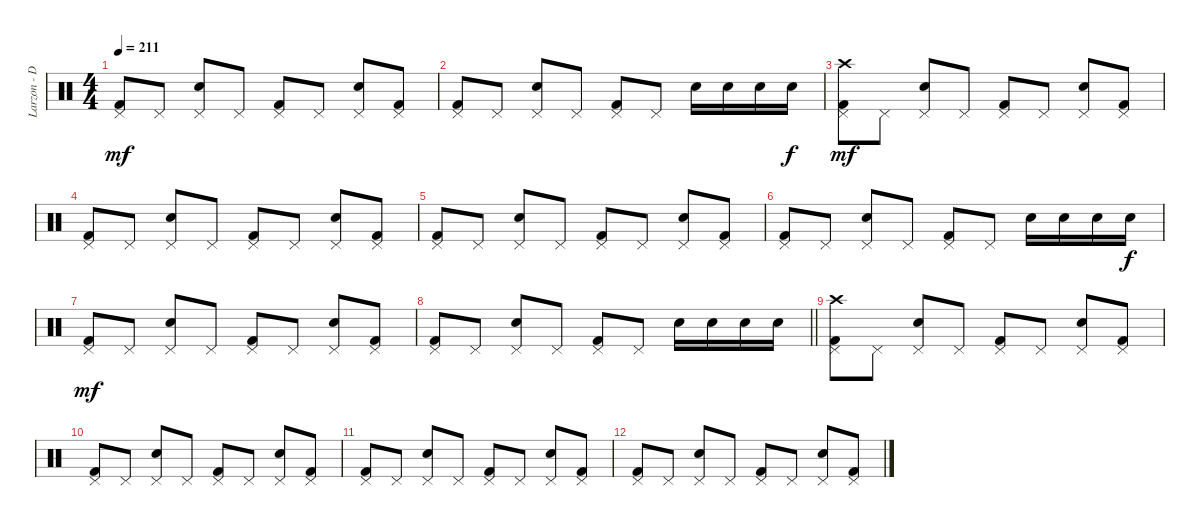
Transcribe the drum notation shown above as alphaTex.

\track ("Larzon - Drums" "Larzon - D") {instrument percussion}
\staff {score}
\articulation defaults
\ts (4 4)
\tempo 211
\clef neutral
\ks c
("Kick (hit) 2" "Pedal Hi-Hat (hit)").8{dy mf} "Pedal Hi-Hat (hit)".8 ("Snare (hit) 2" "Pedal Hi-Hat (hit)").8 "Pedal Hi-Hat (hit)".8 ("Kick (hit) 2" "Pedal Hi-Hat (hit)").8 "Pedal Hi-Hat (hit)".8 ("Snare (hit) 2" "Pedal Hi-Hat (hit)").8 ("Kick (hit) 2" "Pedal Hi-Hat (hit)").8 |
("Kick (hit) 2" "Pedal Hi-Hat (hit)").8 "Pedal Hi-Hat (hit)".8 ("Snare (hit) 2" "Pedal Hi-Hat (hit)").8 "Pedal Hi-Hat (hit)".8 ("Kick (hit) 2" "Pedal Hi-Hat (hit)").8 "Pedal Hi-Hat (hit)".8 "Snare (hit) 2".16 "Snare (hit) 2".16 "Snare (hit) 2".16 "Snare (hit) 2".16{dy f} |
("Kick (hit) 2" "Crash high (hit)" "Pedal Hi-Hat (hit)").8{dy mf} "Pedal Hi-Hat (hit)".8 ("Snare (hit) 2" "Pedal Hi-Hat (hit)").8 "Pedal Hi-Hat (hit)".8 ("Kick (hit) 2" "Pedal Hi-Hat (hit)").8 "Pedal Hi-Hat (hit)".8 ("Snare (hit) 2" "Pedal Hi-Hat (hit)").8 ("Kick (hit) 2" "Pedal Hi-Hat (hit)").8 |
("Kick (hit) 2" "Pedal Hi-Hat (hit)").8 "Pedal Hi-Hat (hit)".8 ("Snare (hit) 2" "Pedal Hi-Hat (hit)").8 "Pedal Hi-Hat (hit)".8 ("Kick (hit) 2" "Pedal Hi-Hat (hit)").8 "Pedal Hi-Hat (hit)".8 ("Snare (hit) 2" "Pedal Hi-Hat (hit)").8 ("Kick (hit) 2" "Pedal Hi-Hat (hit)").8 |
("Kick (hit) 2" "Pedal Hi-Hat (hit)").8 "Pedal Hi-Hat (hit)".8 ("Snare (hit) 2" "Pedal Hi-Hat (hit)").8 "Pedal Hi-Hat (hit)".8 ("Kick (hit) 2" "Pedal Hi-Hat (hit)").8 "Pedal Hi-Hat (hit)".8 ("Snare (hit) 2" "Pedal Hi-Hat (hit)").8 ("Kick (hit) 2" "Pedal Hi-Hat (hit)").8 |
("Kick (hit) 2" "Pedal Hi-Hat (hit)").8 "Pedal Hi-Hat (hit)".8 ("Snare (hit) 2" "Pedal Hi-Hat (hit)").8 "Pedal Hi-Hat (hit)".8 ("Kick (hit) 2" "Pedal Hi-Hat (hit)").8 "Pedal Hi-Hat (hit)".8 "Snare (hit) 2".16 "Snare (hit) 2".16 "Snare (hit) 2".16 "Snare (hit) 2".16{dy f} |
("Kick (hit) 2" "Pedal Hi-Hat (hit)").8{dy mf} "Pedal Hi-Hat (hit)".8 ("Snare (hit) 2" "Pedal Hi-Hat (hit)").8 "Pedal Hi-Hat (hit)".8 ("Kick (hit) 2" "Pedal Hi-Hat (hit)").8 "Pedal Hi-Hat (hit)".8 ("Snare (hit) 2" "Pedal Hi-Hat (hit)").8 ("Kick (hit) 2" "Pedal Hi-Hat (hit)").8 |
\barLineRight lightlight
("Kick (hit) 2" "Pedal Hi-Hat (hit)").8 "Pedal Hi-Hat (hit)".8 ("Snare (hit) 2" "Pedal Hi-Hat (hit)").8 "Pedal Hi-Hat (hit)".8 ("Kick (hit) 2" "Pedal Hi-Hat (hit)").8 "Pedal Hi-Hat (hit)".8 "Snare (hit) 2".16 "Snare (hit) 2".16 "Snare (hit) 2".16 "Snare (hit) 2".16 |
("Kick (hit) 2" "Crash high (hit)" "Pedal Hi-Hat (hit)").8{volume 0} "Pedal Hi-Hat (hit)".8 ("Snare (hit) 2" "Pedal Hi-Hat (hit)").8 "Pedal Hi-Hat (hit)".8 ("Kick (hit) 2" "Pedal Hi-Hat (hit)").8 "Pedal Hi-Hat (hit)".8 ("Snare (hit) 2" "Pedal Hi-Hat (hit)").8 ("Kick (hit) 2" "Pedal Hi-Hat (hit)").8 |
("Kick (hit) 2" "Pedal Hi-Hat (hit)").8 "Pedal Hi-Hat (hit)".8 ("Snare (hit) 2" "Pedal Hi-Hat (hit)").8 "Pedal Hi-Hat (hit)".8 ("Kick (hit) 2" "Pedal Hi-Hat (hit)").8 "Pedal Hi-Hat (hit)".8 ("Snare (hit) 2" "Pedal Hi-Hat (hit)").8 ("Kick (hit) 2" "Pedal Hi-Hat (hit)").8 |
("Kick (hit) 2" "Pedal Hi-Hat (hit)").8 "Pedal Hi-Hat (hit)".8 ("Snare (hit) 2" "Pedal Hi-Hat (hit)").8 "Pedal Hi-Hat (hit)".8 ("Kick (hit) 2" "Pedal Hi-Hat (hit)").8 "Pedal Hi-Hat (hit)".8 ("Snare (hit) 2" "Pedal Hi-Hat (hit)").8 ("Kick (hit) 2" "Pedal Hi-Hat (hit)").8 |
("Kick (hit) 2" "Pedal Hi-Hat (hit)").8 "Pedal Hi-Hat (hit)".8 ("Snare (hit) 2" "Pedal Hi-Hat (hit)").8 "Pedal Hi-Hat (hit)".8 ("Kick (hit) 2" "Pedal Hi-Hat (hit)").8 "Pedal Hi-Hat (hit)".8 ("Snare (hit) 2" "Pedal Hi-Hat (hit)").8 ("Kick (hit) 2" "Pedal Hi-Hat (hit)").8
